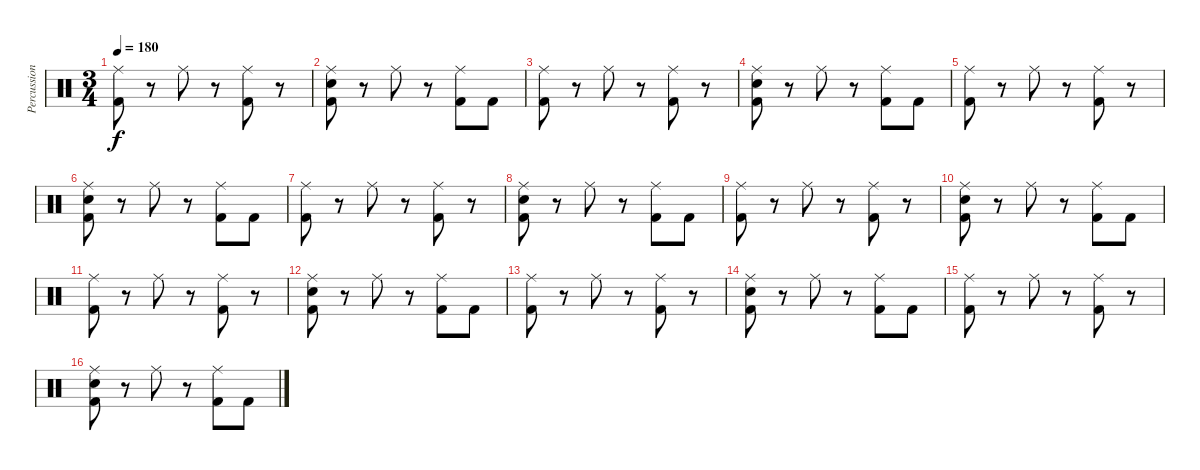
\track ("Percussion" "Percussion") {instrument percussion}
\staff {score}
\articulation defaults
\ts (3 4)
\tempo 180
\clef neutral
\ks c
("Ride (middle)" "Kick (hit) 2").8{dy f} r.8 "Ride (middle)".8 r.8 ("Ride (middle)" "Kick (hit) 2").8 r.8 |
("Ride (middle)" "Snare (hit) 2" "Kick (hit) 2").8 r.8 "Ride (middle)".8 r.8 ("Ride (middle)" "Kick (hit) 2").8 "Kick (hit) 2".8 |
("Ride (middle)" "Kick (hit) 2").8 r.8 "Ride (middle)".8 r.8 ("Ride (middle)" "Kick (hit) 2").8 r.8 |
("Ride (middle)" "Snare (hit) 2" "Kick (hit) 2").8 r.8 "Ride (middle)".8 r.8 ("Ride (middle)" "Kick (hit) 2").8 "Kick (hit) 2".8 |
("Ride (middle)" "Kick (hit) 2").8 r.8 "Ride (middle)".8 r.8 ("Ride (middle)" "Kick (hit) 2").8 r.8 |
("Ride (middle)" "Snare (hit) 2" "Kick (hit) 2").8 r.8 "Ride (middle)".8 r.8 ("Ride (middle)" "Kick (hit) 2").8 "Kick (hit) 2".8 |
("Ride (middle)" "Kick (hit) 2").8 r.8 "Ride (middle)".8 r.8 ("Ride (middle)" "Kick (hit) 2").8 r.8 |
("Ride (middle)" "Snare (hit) 2" "Kick (hit) 2").8 r.8 "Ride (middle)".8 r.8 ("Ride (middle)" "Kick (hit) 2").8 "Kick (hit) 2".8 |
("Ride (middle)" "Kick (hit) 2").8 r.8 "Ride (middle)".8 r.8 ("Ride (middle)" "Kick (hit) 2").8 r.8 |
("Ride (middle)" "Snare (hit) 2" "Kick (hit) 2").8 r.8 "Ride (middle)".8 r.8 ("Ride (middle)" "Kick (hit) 2").8 "Kick (hit) 2".8 |
("Ride (middle)" "Kick (hit) 2").8 r.8 "Ride (middle)".8 r.8 ("Ride (middle)" "Kick (hit) 2").8 r.8 |
("Ride (middle)" "Snare (hit) 2" "Kick (hit) 2").8 r.8 "Ride (middle)".8 r.8 ("Ride (middle)" "Kick (hit) 2").8 "Kick (hit) 2".8 |
("Ride (middle)" "Kick (hit) 2").8 r.8 "Ride (middle)".8 r.8 ("Ride (middle)" "Kick (hit) 2").8 r.8 |
("Ride (middle)" "Snare (hit) 2" "Kick (hit) 2").8 r.8 "Ride (middle)".8 r.8 ("Ride (middle)" "Kick (hit) 2").8 "Kick (hit) 2".8 |
("Ride (middle)" "Kick (hit) 2").8 r.8 "Ride (middle)".8 r.8 ("Ride (middle)" "Kick (hit) 2").8 r.8 |
("Ride (middle)" "Snare (hit) 2" "Kick (hit) 2").8 r.8 "Ride (middle)".8 r.8 ("Ride (middle)" "Kick (hit) 2").8 "Kick (hit) 2".8
